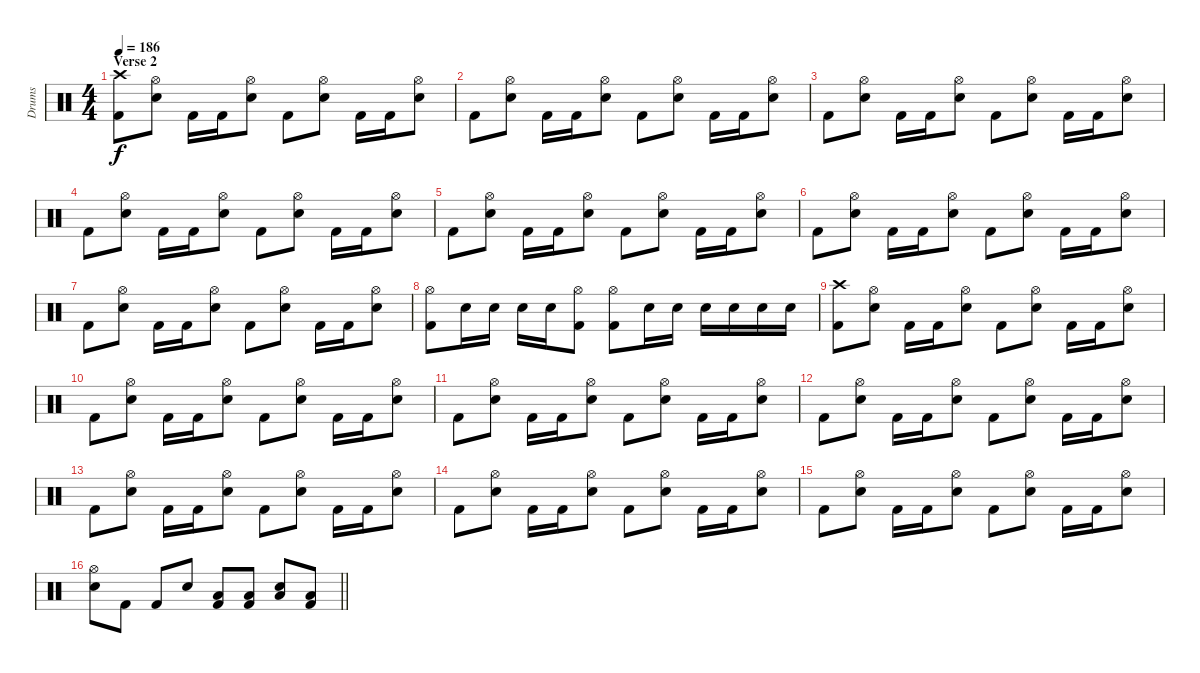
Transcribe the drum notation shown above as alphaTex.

\track ("Drums" "Drums") {instrument percussion}
\staff {score}
\articulation defaults
\ts (4 4)
\section ("" "Verse 2")
\tempo 186
\clef neutral
\ks c
("Crash high (hit)" "Kick (hit) 2").8{dy f} ("Hi-Hat (open)" "Snare (hit) 2").8 "Kick (hit) 2".16 "Kick (hit) 2".16 ("Hi-Hat (open)" "Snare (hit) 2").8 "Kick (hit) 2".8 ("Hi-Hat (open)" "Snare (hit) 2").8 "Kick (hit) 2".16 "Kick (hit) 2".16 ("Hi-Hat (open)" "Snare (hit) 2").8 |
"Kick (hit) 2".8 ("Hi-Hat (open)" "Snare (hit) 2").8 "Kick (hit) 2".16 "Kick (hit) 2".16 ("Hi-Hat (open)" "Snare (hit) 2").8 "Kick (hit) 2".8 ("Hi-Hat (open)" "Snare (hit) 2").8 "Kick (hit) 2".16 "Kick (hit) 2".16 ("Hi-Hat (open)" "Snare (hit) 2").8 |
"Kick (hit) 2".8 ("Hi-Hat (open)" "Snare (hit) 2").8 "Kick (hit) 2".16 "Kick (hit) 2".16 ("Hi-Hat (open)" "Snare (hit) 2").8 "Kick (hit) 2".8 ("Hi-Hat (open)" "Snare (hit) 2").8 "Kick (hit) 2".16 "Kick (hit) 2".16 ("Hi-Hat (open)" "Snare (hit) 2").8 |
"Kick (hit) 2".8 ("Hi-Hat (open)" "Snare (hit) 2").8 "Kick (hit) 2".16 "Kick (hit) 2".16 ("Hi-Hat (open)" "Snare (hit) 2").8 "Kick (hit) 2".8 ("Hi-Hat (open)" "Snare (hit) 2").8 "Kick (hit) 2".16 "Kick (hit) 2".16 ("Hi-Hat (open)" "Snare (hit) 2").8 |
"Kick (hit) 2".8 ("Hi-Hat (open)" "Snare (hit) 2").8 "Kick (hit) 2".16 "Kick (hit) 2".16 ("Hi-Hat (open)" "Snare (hit) 2").8 "Kick (hit) 2".8 ("Hi-Hat (open)" "Snare (hit) 2").8 "Kick (hit) 2".16 "Kick (hit) 2".16 ("Hi-Hat (open)" "Snare (hit) 2").8 |
"Kick (hit) 2".8 ("Hi-Hat (open)" "Snare (hit) 2").8 "Kick (hit) 2".16 "Kick (hit) 2".16 ("Hi-Hat (open)" "Snare (hit) 2").8 "Kick (hit) 2".8 ("Hi-Hat (open)" "Snare (hit) 2").8 "Kick (hit) 2".16 "Kick (hit) 2".16 ("Hi-Hat (open)" "Snare (hit) 2").8 |
"Kick (hit) 2".8 ("Hi-Hat (open)" "Snare (hit) 2").8 "Kick (hit) 2".16 "Kick (hit) 2".16 ("Hi-Hat (open)" "Snare (hit) 2").8 "Kick (hit) 2".8 ("Hi-Hat (open)" "Snare (hit) 2").8 "Kick (hit) 2".16 "Kick (hit) 2".16 ("Hi-Hat (open)" "Snare (hit) 2").8 |
("Hi-Hat (open)" "Kick (hit) 2").8 "Snare (hit) 2".16 "Snare (hit) 2".16 "Snare (hit) 2".16 "Snare (hit) 2".16 ("Hi-Hat (open)" "Kick (hit) 2").8 ("Hi-Hat (open)" "Kick (hit) 2").8 "Snare (hit) 2".16 "Snare (hit) 2".16 "Snare (hit) 2".16 "Snare (hit) 2".16 "Snare (hit) 2".16 "Snare (hit) 2".16 |
("Crash high (hit)" "Kick (hit) 2").8 ("Hi-Hat (open)" "Snare (hit) 2").8 "Kick (hit) 2".16 "Kick (hit) 2".16 ("Hi-Hat (open)" "Snare (hit) 2").8 "Kick (hit) 2".8 ("Hi-Hat (open)" "Snare (hit) 2").8 "Kick (hit) 2".16 "Kick (hit) 2".16 ("Hi-Hat (open)" "Snare (hit) 2").8 |
"Kick (hit) 2".8 ("Hi-Hat (open)" "Snare (hit) 2").8 "Kick (hit) 2".16 "Kick (hit) 2".16 ("Hi-Hat (open)" "Snare (hit) 2").8 "Kick (hit) 2".8 ("Hi-Hat (open)" "Snare (hit) 2").8 "Kick (hit) 2".16 "Kick (hit) 2".16 ("Hi-Hat (open)" "Snare (hit) 2").8 |
"Kick (hit) 2".8 ("Hi-Hat (open)" "Snare (hit) 2").8 "Kick (hit) 2".16 "Kick (hit) 2".16 ("Hi-Hat (open)" "Snare (hit) 2").8 "Kick (hit) 2".8 ("Hi-Hat (open)" "Snare (hit) 2").8 "Kick (hit) 2".16 "Kick (hit) 2".16 ("Hi-Hat (open)" "Snare (hit) 2").8 |
"Kick (hit) 2".8 ("Hi-Hat (open)" "Snare (hit) 2").8 "Kick (hit) 2".16 "Kick (hit) 2".16 ("Hi-Hat (open)" "Snare (hit) 2").8 "Kick (hit) 2".8 ("Hi-Hat (open)" "Snare (hit) 2").8 "Kick (hit) 2".16 "Kick (hit) 2".16 ("Hi-Hat (open)" "Snare (hit) 2").8 |
"Kick (hit) 2".8 ("Hi-Hat (open)" "Snare (hit) 2").8 "Kick (hit) 2".16 "Kick (hit) 2".16 ("Hi-Hat (open)" "Snare (hit) 2").8 "Kick (hit) 2".8 ("Hi-Hat (open)" "Snare (hit) 2").8 "Kick (hit) 2".16 "Kick (hit) 2".16 ("Hi-Hat (open)" "Snare (hit) 2").8 |
"Kick (hit) 2".8 ("Hi-Hat (open)" "Snare (hit) 2").8 "Kick (hit) 2".16 "Kick (hit) 2".16 ("Hi-Hat (open)" "Snare (hit) 2").8 "Kick (hit) 2".8 ("Hi-Hat (open)" "Snare (hit) 2").8 "Kick (hit) 2".16 "Kick (hit) 2".16 ("Hi-Hat (open)" "Snare (hit) 2").8 |
"Kick (hit) 2".8 ("Hi-Hat (open)" "Snare (hit) 2").8 "Kick (hit) 2".16 "Kick (hit) 2".16 ("Hi-Hat (open)" "Snare (hit) 2").8 "Kick (hit) 2".8 ("Hi-Hat (open)" "Snare (hit) 2").8 "Kick (hit) 2".16 "Kick (hit) 2".16 ("Hi-Hat (open)" "Snare (hit) 2").8 |
\barLineRight lightlight
("Hi-Hat (open)" "Snare (hit) 2").8 "Kick (hit) 2".8 "Kick (hit) 2".8 "Snare (hit) 2".8 ("Low Floor Tom (hit)" "Kick (hit) 2").8 ("Low Floor Tom (hit)" "Kick (hit) 2").8 ("Snare (hit) 2" "Low Floor Tom (hit)").8 ("Low Floor Tom (hit)" "Kick (hit) 2").8
